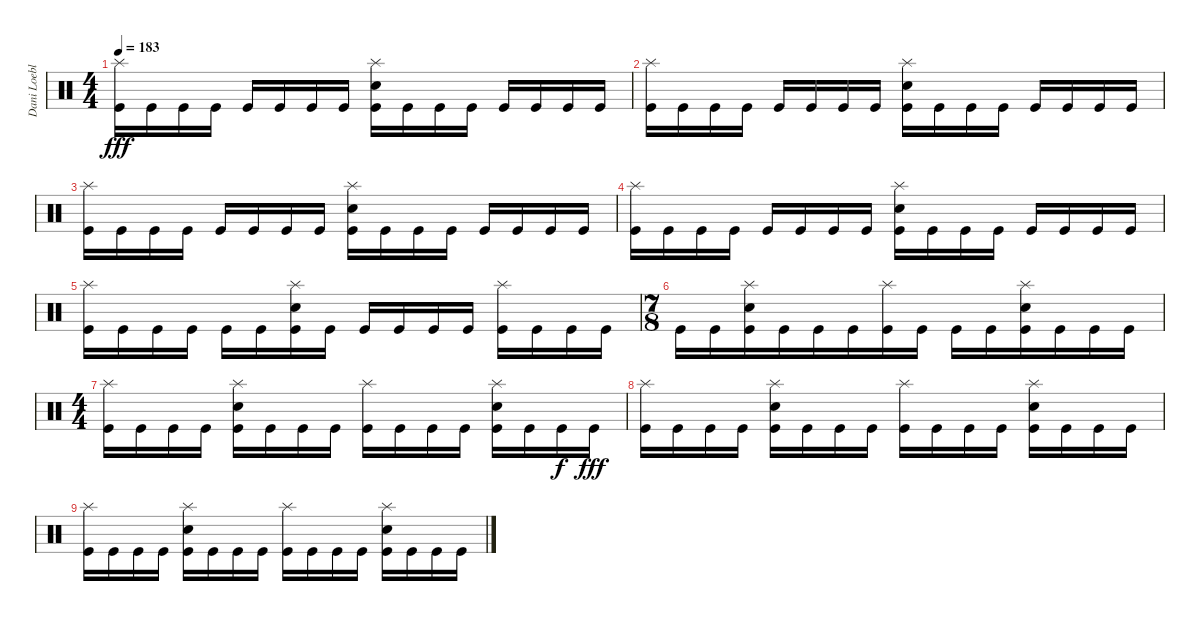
\track ("Dani Loeble" "Dani Loebl") {instrument percussion}
\staff {score}
\articulation defaults
\ts (4 4)
\tempo 183
\clef neutral
\ks c
("Splash (hit)" "Kick (hit)").16{dy fff} "Kick (hit)".16 "Kick (hit)".16 "Kick (hit)".16 "Kick (hit)".16 "Kick (hit)".16 "Kick (hit)".16 "Kick (hit)".16 ("Splash (hit)" "Electric Snare (hit)" "Kick (hit)").16 "Kick (hit)".16 "Kick (hit)".16 "Kick (hit)".16 "Kick (hit)".16 "Kick (hit)".16 "Kick (hit)".16 "Kick (hit)".16 |
("Splash (hit)" "Kick (hit)").16 "Kick (hit)".16 "Kick (hit)".16 "Kick (hit)".16 "Kick (hit)".16 "Kick (hit)".16 "Kick (hit)".16 "Kick (hit)".16 ("Splash (hit)" "Electric Snare (hit)" "Kick (hit)").16 "Kick (hit)".16 "Kick (hit)".16 "Kick (hit)".16 "Kick (hit)".16 "Kick (hit)".16 "Kick (hit)".16 "Kick (hit)".16 |
("Splash (hit)" "Kick (hit)").16{volume 4} "Kick (hit)".16 "Kick (hit)".16 "Kick (hit)".16 "Kick (hit)".16 "Kick (hit)".16 "Kick (hit)".16 "Kick (hit)".16 ("Splash (hit)" "Electric Snare (hit)" "Kick (hit)").16 "Kick (hit)".16 "Kick (hit)".16 "Kick (hit)".16 "Kick (hit)".16 "Kick (hit)".16 "Kick (hit)".16 "Kick (hit)".16 |
("Splash (hit)" "Kick (hit)").16 "Kick (hit)".16 "Kick (hit)".16 "Kick (hit)".16 "Kick (hit)".16 "Kick (hit)".16 "Kick (hit)".16 "Kick (hit)".16 ("Splash (hit)" "Electric Snare (hit)" "Kick (hit)").16 "Kick (hit)".16 "Kick (hit)".16 "Kick (hit)".16 "Kick (hit)".16 "Kick (hit)".16 "Kick (hit)".16 "Kick (hit)".16 |
("Splash (hit)" "Kick (hit)").16 "Kick (hit)".16 "Kick (hit)".16 "Kick (hit)".16 "Kick (hit)".16 "Kick (hit)".16 ("Splash (hit)" "Electric Snare (hit)" "Kick (hit)").16 "Kick (hit)".16 "Kick (hit)".16 "Kick (hit)".16 "Kick (hit)".16 "Kick (hit)".16 ("Splash (hit)" "Kick (hit)").16 "Kick (hit)".16 "Kick (hit)".16 "Kick (hit)".16 |
\ts (7 8)
"Kick (hit)".16 "Kick (hit)".16 ("Splash (hit)" "Electric Snare (hit)" "Kick (hit)").16 "Kick (hit)".16 "Kick (hit)".16 "Kick (hit)".16 ("Splash (hit)" "Kick (hit)").16 "Kick (hit)".16 "Kick (hit)".16 "Kick (hit)".16 ("Splash (hit)" "Electric Snare (hit)" "Kick (hit)").16 "Kick (hit)".16 "Kick (hit)".16 "Kick (hit)".16 |
\ts (4 4)
("Splash (hit)" "Kick (hit)").16 "Kick (hit)".16 "Kick (hit)".16 "Kick (hit)".16 ("Splash (hit)" "Electric Snare (hit)" "Kick (hit)").16 "Kick (hit)".16 "Kick (hit)".16 "Kick (hit)".16 ("Splash (hit)" "Kick (hit)").16 "Kick (hit)".16 "Kick (hit)".16 "Kick (hit)".16 ("Splash (hit)" "Electric Snare (hit)" "Kick (hit)").16 "Kick (hit)".16 "Kick (hit)".16{dy f} "Kick (hit)".16{dy fff} |
("Splash (hit)" "Kick (hit)").16{volume 2} "Kick (hit)".16 "Kick (hit)".16 "Kick (hit)".16 ("Splash (hit)" "Electric Snare (hit)" "Kick (hit)").16 "Kick (hit)".16 "Kick (hit)".16 "Kick (hit)".16 ("Splash (hit)" "Kick (hit)").16 "Kick (hit)".16 "Kick (hit)".16 "Kick (hit)".16 ("Splash (hit)" "Electric Snare (hit)" "Kick (hit)").16 "Kick (hit)".16 "Kick (hit)".16 "Kick (hit)".16 |
("Splash (hit)" "Kick (hit)").16 "Kick (hit)".16 "Kick (hit)".16 "Kick (hit)".16 ("Splash (hit)" "Electric Snare (hit)" "Kick (hit)").16 "Kick (hit)".16 "Kick (hit)".16 "Kick (hit)".16 ("Splash (hit)" "Kick (hit)").16 "Kick (hit)".16 "Kick (hit)".16 "Kick (hit)".16 ("Splash (hit)" "Electric Snare (hit)" "Kick (hit)").16 "Kick (hit)".16 "Kick (hit)".16 "Kick (hit)".16
